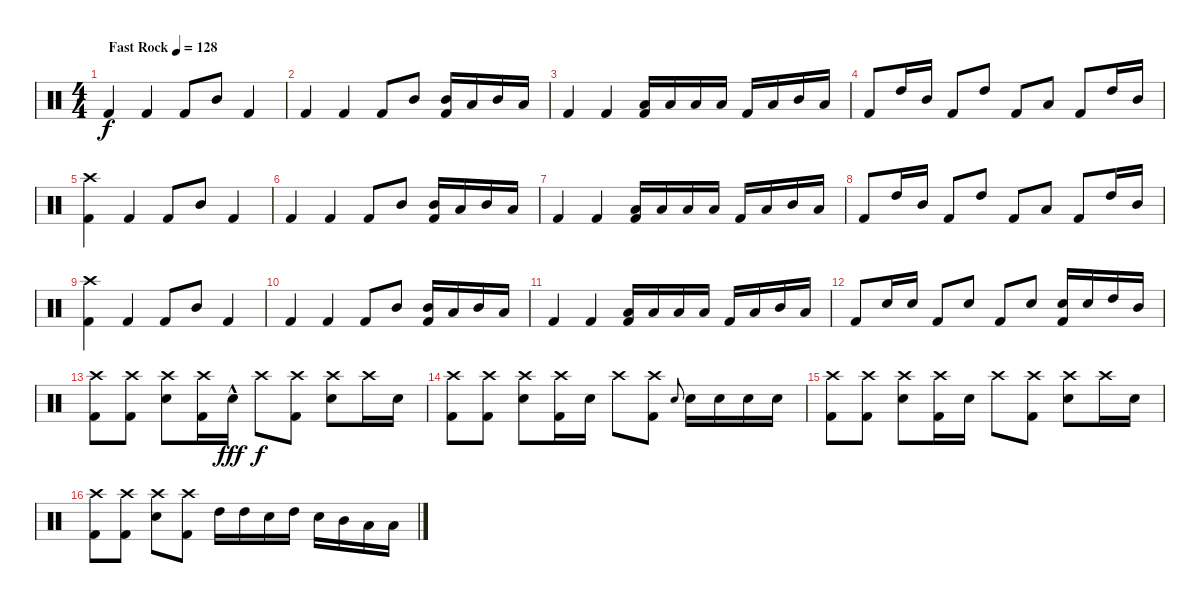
\track "" {solo instrument percussion}
\staff {score}
\articulation defaults
\ts (4 4)
\tempo (128 "Fast Rock")
\clef neutral
\ks c "Kick (hit) 2".4{dy f} "Kick (hit) 2".4 "Kick (hit) 2".8 "Mid Tom (hit)".8 "Kick (hit) 2".4
|
"Kick (hit) 2".4 "Kick (hit) 2".4 "Kick (hit) 2".8 "Mid Tom (hit)".8 ("Mid Tom (hit)" "Kick (hit) 2").16 "Low Tom (hit)".16 "Mid Tom (hit)".16 "Low Tom (hit)".16 |
"Kick (hit) 2".4 "Kick (hit) 2".4 ("Low Tom (hit)" "Kick (hit) 2").16 "Low Tom (hit)".16 "Low Tom (hit)".16 "Low Tom (hit)".16 "Kick (hit) 2".16 "Low Tom (hit)".16 "Mid Tom (hit)".16 "Low Tom (hit)".16 |
"Kick (hit) 2".8 "High Tom (hit)".16 "Mid Tom (hit)".16 "Kick (hit) 2".8 "High Tom (hit)".8 "Kick (hit) 2".8 "Low Tom (hit)".8 "Kick (hit) 2".8 "High Tom (hit)".16 "Mid Tom (hit)".16 |
("Crash high (hit)" "Kick (hit) 2").4 "Kick (hit) 2".4 "Kick (hit) 2".8 "Mid Tom (hit)".8 "Kick (hit) 2".4 |
"Kick (hit) 2".4 "Kick (hit) 2".4 "Kick (hit) 2".8 "Mid Tom (hit)".8 ("Mid Tom (hit)" "Kick (hit) 2").16 "Low Tom (hit)".16 "Mid Tom (hit)".16 "Low Tom (hit)".16 |
"Kick (hit) 2".4 "Kick (hit) 2".4 ("Low Tom (hit)" "Kick (hit) 2").16 "Low Tom (hit)".16 "Low Tom (hit)".16 "Low Tom (hit)".16 "Kick (hit) 2".16 "Low Tom (hit)".16 "Mid Tom (hit)".16 "Low Tom (hit)".16 |
"Kick (hit) 2".8 "High Tom (hit)".16 "Mid Tom (hit)".16 "Kick (hit) 2".8 "High Tom (hit)".8 "Kick (hit) 2".8 "Low Tom (hit)".8 "Kick (hit) 2".8 "High Tom (hit)".16 "Mid Tom (hit)".16 |
("Crash high (hit)" "Kick (hit) 2").4 "Kick (hit) 2".4 "Kick (hit) 2".8 "Mid Tom (hit)".8 "Kick (hit) 2".4 |
"Kick (hit) 2".4 "Kick (hit) 2".4 "Kick (hit) 2".8 "Mid Tom (hit)".8 ("Mid Tom (hit)" "Kick (hit) 2").16 "Low Tom (hit)".16 "Mid Tom (hit)".16 "Low Tom (hit)".16 |
"Kick (hit) 2".4 "Kick (hit) 2".4 ("Low Tom (hit)" "Kick (hit) 2").16 "Low Tom (hit)".16 "Low Tom (hit)".16 "Low Tom (hit)".16 "Kick (hit) 2".16 "Low Tom (hit)".16 "Mid Tom (hit)".16 "Low Tom (hit)".16 |
"Kick (hit) 2".8 "Snare (hit) 2".16 "Snare (hit) 2".16 "Kick (hit) 2".8 "Snare (hit) 2".8 "Kick (hit) 2".8 "Snare (hit) 2".8 ("Snare (hit) 2" "Kick (hit) 2").16 "Snare (hit) 2".16 "High Tom (hit)".16 "Mid Tom (hit)".16 |
("Crash high (hit)" "Kick (hit) 2").8 ("Crash high (hit)" "Kick (hit) 2").8 ("Crash high (hit)" "Snare (hit) 2").8 ("Crash high (hit)" "Kick (hit) 2").16 "Snare (hit) 2"{hac}.16{dy fff} "Crash high (hit)".8{dy f} ("Crash high (hit)" "Kick (hit) 2").8 ("Crash high (hit)" "Snare (hit) 2").8 "Crash high (hit)".16 "Snare (hit) 2".16 |
("Crash high (hit)" "Kick (hit) 2").8 ("Crash high (hit)" "Kick (hit) 2").8 ("Crash high (hit)" "Snare (hit) 2").8 ("Crash high (hit)" "Kick (hit) 2").16 "Snare (hit) 2".16 "Crash high (hit)".8 ("Crash high (hit)" "Kick (hit) 2").8 "Snare (hit) 2".8{gr onbeat} "Snare (hit) 2".16 "Snare (hit) 2".16 "Snare (hit) 2".16 "Snare (hit) 2".16 |
("Crash high (hit)" "Kick (hit) 2").8 ("Crash high (hit)" "Kick (hit) 2").8 ("Crash high (hit)" "Snare (hit) 2").8 ("Crash high (hit)" "Kick (hit) 2").16 "Snare (hit) 2".16 "Crash high (hit)".8 ("Crash high (hit)" "Kick (hit) 2").8 ("Crash high (hit)" "Snare (hit) 2").8 "Crash high (hit)".16 "Snare (hit) 2".16 |
("Crash high (hit)" "Kick (hit) 2").8 ("Crash high (hit)" "Kick (hit) 2").8 ("Crash high (hit)" "Snare (hit) 2").8 ("Crash high (hit)" "Kick (hit) 2").8 "High Tom (hit)".16 "High Tom (hit)".16 "Snare (hit) 2".16 "High Tom (hit)".16 "Snare (hit) 2".16 "Mid Tom (hit)".16 "Low Tom (hit)".16 "Low Tom (hit)".16
